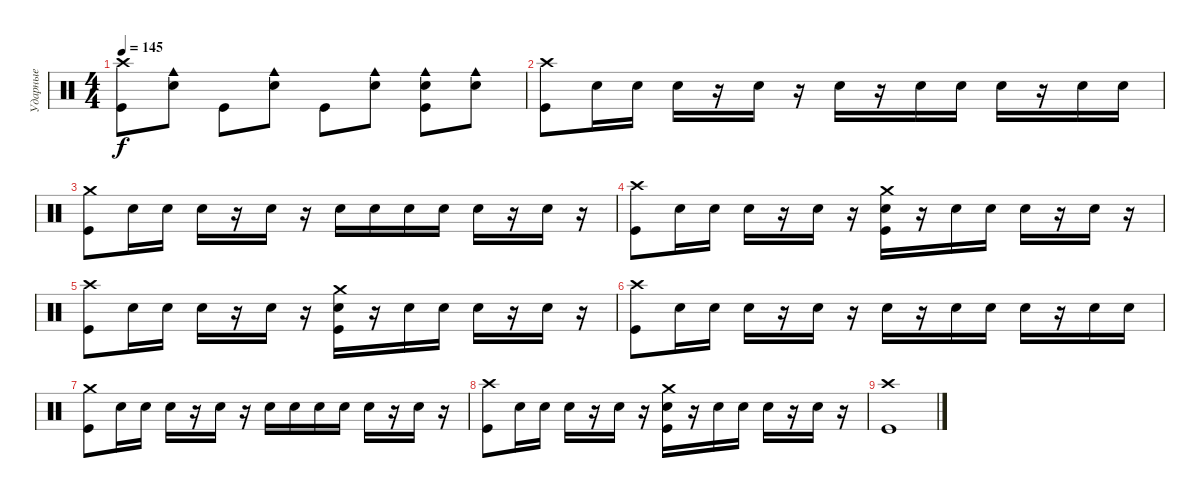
\track ("Ударные" "Ударные") {instrument percussion}
\staff {score}
\articulation defaults
\ts (4 4)
\tempo 145
\clef neutral
\ks c
("Crash high (hit)" "Kick (hit)").8{dy f} ("Cowbell medium (hit)" "Electric Snare (hit)").8 "Kick (hit)".8 ("Cowbell medium (hit)" "Electric Snare (hit)").8 "Kick (hit)".8 ("Cowbell medium (hit)" "Electric Snare (hit)").8 ("Cowbell medium (hit)" "Electric Snare (hit)" "Kick (hit)").8 ("Cowbell medium (hit)" "Electric Snare (hit)").8 |
("Crash high (hit)" "Kick (hit)").8 "Electric Snare (hit)".16 "Electric Snare (hit)".16 "Electric Snare (hit)".16 r.16 "Electric Snare (hit)".16 r.16 "Electric Snare (hit)".16 r.16 "Electric Snare (hit)".16 "Electric Snare (hit)".16 "Electric Snare (hit)".16 r.16 "Electric Snare (hit)".16 "Electric Snare (hit)".16 |
("Crash medium (hit)" "Kick (hit)").8 "Electric Snare (hit)".16 "Electric Snare (hit)".16 "Electric Snare (hit)".16 r.16 "Electric Snare (hit)".16 r.16 "Electric Snare (hit)".16 "Electric Snare (hit)".16 "Electric Snare (hit)".16 "Electric Snare (hit)".16 "Electric Snare (hit)".16 r.16 "Electric Snare (hit)".16 r.16 |
("Crash high (hit)" "Kick (hit)").8 "Electric Snare (hit)".16 "Electric Snare (hit)".16 "Electric Snare (hit)".16 r.16 "Electric Snare (hit)".16 r.16 ("Crash medium (hit)" "Electric Snare (hit)" "Kick (hit)").16 r.16 "Electric Snare (hit)".16 "Electric Snare (hit)".16 "Electric Snare (hit)".16 r.16 "Electric Snare (hit)".16 r.16 |
("Crash high (hit)" "Kick (hit)").8 "Electric Snare (hit)".16 "Electric Snare (hit)".16 "Electric Snare (hit)".16 r.16 "Electric Snare (hit)".16 r.16 ("Crash medium (hit)" "Electric Snare (hit)" "Kick (hit)").16 r.16 "Electric Snare (hit)".16 "Electric Snare (hit)".16 "Electric Snare (hit)".16 r.16 "Electric Snare (hit)".16 r.16 |
("Crash high (hit)" "Kick (hit)").8 "Electric Snare (hit)".16 "Electric Snare (hit)".16 "Electric Snare (hit)".16 r.16 "Electric Snare (hit)".16 r.16 "Electric Snare (hit)".16 r.16 "Electric Snare (hit)".16 "Electric Snare (hit)".16 "Electric Snare (hit)".16 r.16 "Electric Snare (hit)".16 "Electric Snare (hit)".16 |
("Crash medium (hit)" "Kick (hit)").8 "Electric Snare (hit)".16 "Electric Snare (hit)".16 "Electric Snare (hit)".16 r.16 "Electric Snare (hit)".16 r.16 "Electric Snare (hit)".16 "Electric Snare (hit)".16 "Electric Snare (hit)".16 "Electric Snare (hit)".16 "Electric Snare (hit)".16 r.16 "Electric Snare (hit)".16 r.16 |
("Crash high (hit)" "Kick (hit)").8 "Electric Snare (hit)".16 "Electric Snare (hit)".16 "Electric Snare (hit)".16 r.16 "Electric Snare (hit)".16 r.16 ("Crash medium (hit)" "Electric Snare (hit)" "Kick (hit)").16 r.16 "Electric Snare (hit)".16 "Electric Snare (hit)".16 "Electric Snare (hit)".16 r.16 "Electric Snare (hit)".16 r.16 |
("Crash high (hit)" "Kick (hit)").1
